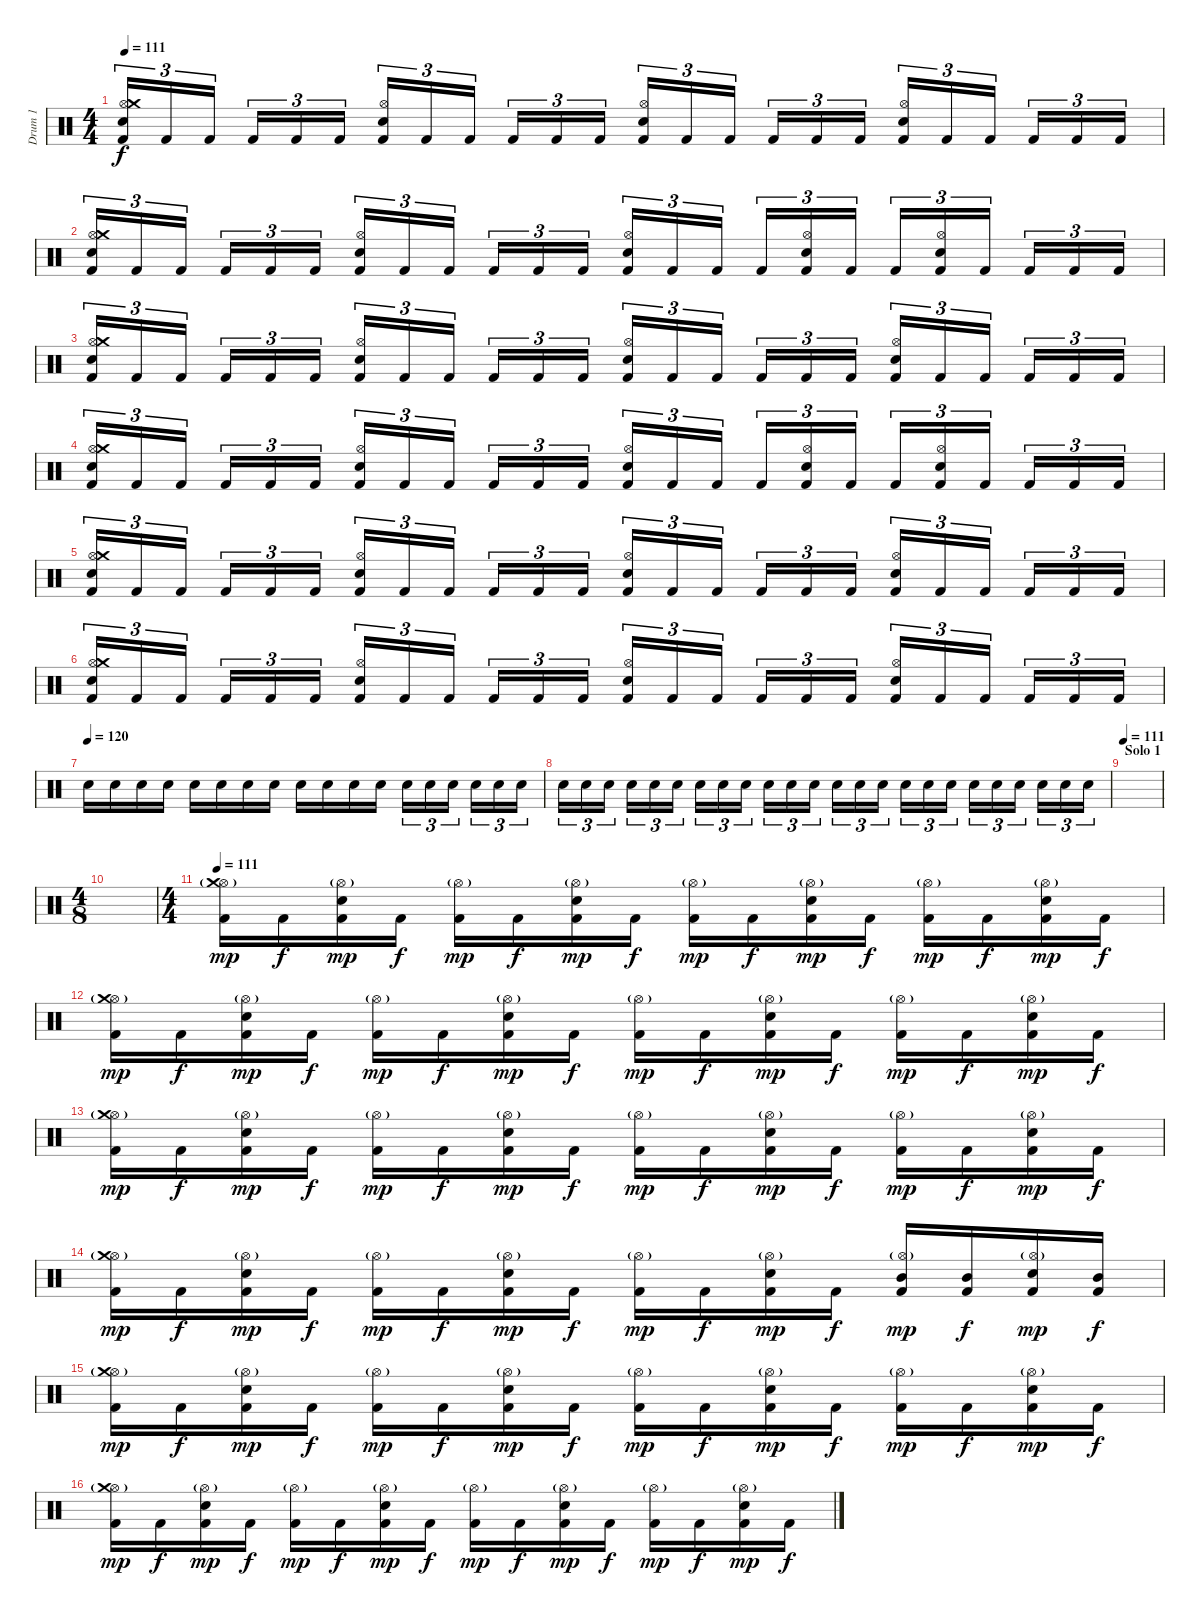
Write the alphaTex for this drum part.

\track ("Drum 1" "Drum 1") {instrument percussion}
\staff {score}
\articulation defaults
\ts (4 4)
\tempo 111
\clef neutral
\ks c
("Kick (hit) 2" "Hi-Hat (open)" "Crash medium (hit)" "Electric Snare (hit)").16{tu (3 2) dy f} "Kick (hit) 2".16{tu (3 2)} "Kick (hit) 2".16{tu (3 2)} "Kick (hit) 2".16{tu (3 2)} "Kick (hit) 2".16{tu (3 2)} "Kick (hit) 2".16{tu (3 2)} ("Kick (hit) 2" "Hi-Hat (open)" "Electric Snare (hit)").16{tu (3 2)} "Kick (hit) 2".16{tu (3 2)} "Kick (hit) 2".16{tu (3 2)} "Kick (hit) 2".16{tu (3 2)} "Kick (hit) 2".16{tu (3 2)} "Kick (hit) 2".16{tu (3 2)} ("Kick (hit) 2" "Hi-Hat (open)" "Electric Snare (hit)").16{tu (3 2)} "Kick (hit) 2".16{tu (3 2)} "Kick (hit) 2".16{tu (3 2)} "Kick (hit) 2".16{tu (3 2)} "Kick (hit) 2".16{tu (3 2)} "Kick (hit) 2".16{tu (3 2)} ("Kick (hit) 2" "Hi-Hat (open)" "Electric Snare (hit)").16{tu (3 2)} "Kick (hit) 2".16{tu (3 2)} "Kick (hit) 2".16{tu (3 2)} "Kick (hit) 2".16{tu (3 2)} "Kick (hit) 2".16{tu (3 2)} "Kick (hit) 2".16{tu (3 2)} |
("Kick (hit) 2" "Hi-Hat (open)" "Crash medium (hit)" "Electric Snare (hit)").16{tu (3 2)} "Kick (hit) 2".16{tu (3 2)} "Kick (hit) 2".16{tu (3 2)} "Kick (hit) 2".16{tu (3 2)} "Kick (hit) 2".16{tu (3 2)} "Kick (hit) 2".16{tu (3 2)} ("Kick (hit) 2" "Hi-Hat (open)" "Electric Snare (hit)").16{tu (3 2)} "Kick (hit) 2".16{tu (3 2)} "Kick (hit) 2".16{tu (3 2)} "Kick (hit) 2".16{tu (3 2)} "Kick (hit) 2".16{tu (3 2)} "Kick (hit) 2".16{tu (3 2)} ("Kick (hit) 2" "Hi-Hat (open)" "Electric Snare (hit)").16{tu (3 2)} "Kick (hit) 2".16{tu (3 2)} "Kick (hit) 2".16{tu (3 2)} "Kick (hit) 2".16{tu (3 2)} ("Kick (hit) 2" "Electric Snare (hit)" "Hi-Hat (open)").16{tu (3 2)} "Kick (hit) 2".16{tu (3 2)} "Kick (hit) 2".16{tu (3 2)} ("Kick (hit) 2" "Hi-Hat (open)" "Electric Snare (hit)").16{tu (3 2)} "Kick (hit) 2".16{tu (3 2)} "Kick (hit) 2".16{tu (3 2)} "Kick (hit) 2".16{tu (3 2)} "Kick (hit) 2".16{tu (3 2)} |
("Kick (hit) 2" "Hi-Hat (open)" "Crash medium (hit)" "Electric Snare (hit)").16{tu (3 2)} "Kick (hit) 2".16{tu (3 2)} "Kick (hit) 2".16{tu (3 2)} "Kick (hit) 2".16{tu (3 2)} "Kick (hit) 2".16{tu (3 2)} "Kick (hit) 2".16{tu (3 2)} ("Kick (hit) 2" "Hi-Hat (open)" "Electric Snare (hit)").16{tu (3 2)} "Kick (hit) 2".16{tu (3 2)} "Kick (hit) 2".16{tu (3 2)} "Kick (hit) 2".16{tu (3 2)} "Kick (hit) 2".16{tu (3 2)} "Kick (hit) 2".16{tu (3 2)} ("Kick (hit) 2" "Hi-Hat (open)" "Electric Snare (hit)").16{tu (3 2)} "Kick (hit) 2".16{tu (3 2)} "Kick (hit) 2".16{tu (3 2)} "Kick (hit) 2".16{tu (3 2)} "Kick (hit) 2".16{tu (3 2)} "Kick (hit) 2".16{tu (3 2)} ("Kick (hit) 2" "Hi-Hat (open)" "Electric Snare (hit)").16{tu (3 2)} "Kick (hit) 2".16{tu (3 2)} "Kick (hit) 2".16{tu (3 2)} "Kick (hit) 2".16{tu (3 2)} "Kick (hit) 2".16{tu (3 2)} "Kick (hit) 2".16{tu (3 2)} |
("Kick (hit) 2" "Hi-Hat (open)" "Crash medium (hit)" "Electric Snare (hit)").16{tu (3 2)} "Kick (hit) 2".16{tu (3 2)} "Kick (hit) 2".16{tu (3 2)} "Kick (hit) 2".16{tu (3 2)} "Kick (hit) 2".16{tu (3 2)} "Kick (hit) 2".16{tu (3 2)} ("Kick (hit) 2" "Hi-Hat (open)" "Electric Snare (hit)").16{tu (3 2)} "Kick (hit) 2".16{tu (3 2)} "Kick (hit) 2".16{tu (3 2)} "Kick (hit) 2".16{tu (3 2)} "Kick (hit) 2".16{tu (3 2)} "Kick (hit) 2".16{tu (3 2)} ("Kick (hit) 2" "Hi-Hat (open)" "Electric Snare (hit)").16{tu (3 2)} "Kick (hit) 2".16{tu (3 2)} "Kick (hit) 2".16{tu (3 2)} "Kick (hit) 2".16{tu (3 2)} ("Kick (hit) 2" "Electric Snare (hit)" "Hi-Hat (open)").16{tu (3 2)} "Kick (hit) 2".16{tu (3 2)} "Kick (hit) 2".16{tu (3 2)} ("Kick (hit) 2" "Hi-Hat (open)" "Electric Snare (hit)").16{tu (3 2)} "Kick (hit) 2".16{tu (3 2)} "Kick (hit) 2".16{tu (3 2)} "Kick (hit) 2".16{tu (3 2)} "Kick (hit) 2".16{tu (3 2)} |
("Kick (hit) 2" "Hi-Hat (open)" "Crash medium (hit)" "Electric Snare (hit)").16{tu (3 2)} "Kick (hit) 2".16{tu (3 2)} "Kick (hit) 2".16{tu (3 2)} "Kick (hit) 2".16{tu (3 2)} "Kick (hit) 2".16{tu (3 2)} "Kick (hit) 2".16{tu (3 2)} ("Kick (hit) 2" "Hi-Hat (open)" "Electric Snare (hit)").16{tu (3 2)} "Kick (hit) 2".16{tu (3 2)} "Kick (hit) 2".16{tu (3 2)} "Kick (hit) 2".16{tu (3 2)} "Kick (hit) 2".16{tu (3 2)} "Kick (hit) 2".16{tu (3 2)} ("Kick (hit) 2" "Hi-Hat (open)" "Electric Snare (hit)").16{tu (3 2)} "Kick (hit) 2".16{tu (3 2)} "Kick (hit) 2".16{tu (3 2)} "Kick (hit) 2".16{tu (3 2)} "Kick (hit) 2".16{tu (3 2)} "Kick (hit) 2".16{tu (3 2)} ("Kick (hit) 2" "Hi-Hat (open)" "Electric Snare (hit)").16{tu (3 2)} "Kick (hit) 2".16{tu (3 2)} "Kick (hit) 2".16{tu (3 2)} "Kick (hit) 2".16{tu (3 2)} "Kick (hit) 2".16{tu (3 2)} "Kick (hit) 2".16{tu (3 2)} |
("Kick (hit) 2" "Hi-Hat (open)" "Crash medium (hit)" "Electric Snare (hit)").16{tu (3 2)} "Kick (hit) 2".16{tu (3 2)} "Kick (hit) 2".16{tu (3 2)} "Kick (hit) 2".16{tu (3 2)} "Kick (hit) 2".16{tu (3 2)} "Kick (hit) 2".16{tu (3 2)} ("Kick (hit) 2" "Hi-Hat (open)" "Electric Snare (hit)").16{tu (3 2)} "Kick (hit) 2".16{tu (3 2)} "Kick (hit) 2".16{tu (3 2)} "Kick (hit) 2".16{tu (3 2)} "Kick (hit) 2".16{tu (3 2)} "Kick (hit) 2".16{tu (3 2)} ("Kick (hit) 2" "Hi-Hat (open)" "Electric Snare (hit)").16{tu (3 2)} "Kick (hit) 2".16{tu (3 2)} "Kick (hit) 2".16{tu (3 2)} "Kick (hit) 2".16{tu (3 2)} "Kick (hit) 2".16{tu (3 2)} "Kick (hit) 2".16{tu (3 2)} ("Kick (hit) 2" "Hi-Hat (open)" "Electric Snare (hit)").16{tu (3 2)} "Kick (hit) 2".16{tu (3 2)} "Kick (hit) 2".16{tu (3 2)} "Kick (hit) 2".16{tu (3 2)} "Kick (hit) 2".16{tu (3 2)} "Kick (hit) 2".16{tu (3 2)} |
\tempo 125
\tempo (120)
"Electric Snare (hit)".16 "Electric Snare (hit)".16 "Electric Snare (hit)".16 "Electric Snare (hit)".16 "Electric Snare (hit)".16 "Electric Snare (hit)".16 "Electric Snare (hit)".16 "Electric Snare (hit)".16 "Electric Snare (hit)".16 "Electric Snare (hit)".16 "Electric Snare (hit)".16 "Electric Snare (hit)".16 "Electric Snare (hit)".16{tu (3 2)} "Electric Snare (hit)".16{tu (3 2)} "Electric Snare (hit)".16{tu (3 2)} "Electric Snare (hit)".16{tu (3 2)} "Electric Snare (hit)".16{tu (3 2)} "Electric Snare (hit)".16{tu (3 2)} |
"Electric Snare (hit)".16{tu (3 2)} "Electric Snare (hit)".16{tu (3 2)} "Electric Snare (hit)".16{tu (3 2)} "Electric Snare (hit)".16{tu (3 2)} "Electric Snare (hit)".16{tu (3 2)} "Electric Snare (hit)".16{tu (3 2)} "Electric Snare (hit)".16{tu (3 2)} "Electric Snare (hit)".16{tu (3 2)} "Electric Snare (hit)".16{tu (3 2)} "Electric Snare (hit)".16{tu (3 2)} "Electric Snare (hit)".16{tu (3 2)} "Electric Snare (hit)".16{tu (3 2)} "Electric Snare (hit)".16{tu (3 2)} "Electric Snare (hit)".16{tu (3 2)} "Electric Snare (hit)".16{tu (3 2)} "Electric Snare (hit)".16{tu (3 2)} "Electric Snare (hit)".16{tu (3 2)} "Electric Snare (hit)".16{tu (3 2)} "Electric Snare (hit)".16{tu (3 2)} "Electric Snare (hit)".16{tu (3 2)} "Electric Snare (hit)".16{tu (3 2)} "Electric Snare (hit)".16{tu (3 2)} "Electric Snare (hit)".16{tu (3 2)} "Electric Snare (hit)".16{tu (3 2)} |
\section ("" "Solo 1")
\tempo 111
|
\ts (4 8)
|
\ts (4 4)
\tempo 111
("Kick (hit) 2" "Hi-Hat (open)"{g} "Crash medium (hit)").16{dy mp} "Kick (hit) 2".16{dy f} ("Kick (hit) 2" "Hi-Hat (open)"{g} "Electric Snare (hit)").16{dy mp} "Kick (hit) 2".16{dy f} ("Kick (hit) 2" "Hi-Hat (open)"{g}).16{dy mp} "Kick (hit) 2".16{dy f} ("Kick (hit) 2" "Hi-Hat (open)"{g} "Electric Snare (hit)").16{dy mp} "Kick (hit) 2".16{dy f} ("Kick (hit) 2" "Hi-Hat (open)"{g}).16{dy mp} "Kick (hit) 2".16{dy f} ("Kick (hit) 2" "Hi-Hat (open)"{g} "Electric Snare (hit)").16{dy mp} "Kick (hit) 2".16{dy f} ("Kick (hit) 2" "Hi-Hat (open)"{g}).16{dy mp} "Kick (hit) 2".16{dy f} ("Kick (hit) 2" "Hi-Hat (open)"{g} "Electric Snare (hit)").16{dy mp} "Kick (hit) 2".16{dy f} |
("Kick (hit) 2" "Hi-Hat (open)"{g} "Crash medium (hit)").16{dy mp} "Kick (hit) 2".16{dy f} ("Kick (hit) 2" "Hi-Hat (open)"{g} "Electric Snare (hit)").16{dy mp} "Kick (hit) 2".16{dy f} ("Kick (hit) 2" "Hi-Hat (open)"{g}).16{dy mp} "Kick (hit) 2".16{dy f} ("Kick (hit) 2" "Hi-Hat (open)"{g} "Electric Snare (hit)").16{dy mp} "Kick (hit) 2".16{dy f} ("Kick (hit) 2" "Hi-Hat (open)"{g}).16{dy mp} "Kick (hit) 2".16{dy f} ("Kick (hit) 2" "Hi-Hat (open)"{g} "Electric Snare (hit)").16{dy mp} "Kick (hit) 2".16{dy f} ("Kick (hit) 2" "Hi-Hat (open)"{g}).16{dy mp} "Kick (hit) 2".16{dy f} ("Kick (hit) 2" "Hi-Hat (open)"{g} "Electric Snare (hit)").16{dy mp} "Kick (hit) 2".16{dy f} |
("Kick (hit) 2" "Hi-Hat (open)"{g} "Crash medium (hit)").16{dy mp} "Kick (hit) 2".16{dy f} ("Kick (hit) 2" "Hi-Hat (open)"{g} "Electric Snare (hit)").16{dy mp} "Kick (hit) 2".16{dy f} ("Kick (hit) 2" "Hi-Hat (open)"{g}).16{dy mp} "Kick (hit) 2".16{dy f} ("Kick (hit) 2" "Hi-Hat (open)"{g} "Electric Snare (hit)").16{dy mp} "Kick (hit) 2".16{dy f} ("Kick (hit) 2" "Hi-Hat (open)"{g}).16{dy mp} "Kick (hit) 2".16{dy f} ("Kick (hit) 2" "Hi-Hat (open)"{g} "Electric Snare (hit)").16{dy mp} "Kick (hit) 2".16{dy f} ("Kick (hit) 2" "Hi-Hat (open)"{g}).16{dy mp} "Kick (hit) 2".16{dy f} ("Kick (hit) 2" "Hi-Hat (open)"{g} "Electric Snare (hit)").16{dy mp} "Kick (hit) 2".16{dy f} |
("Kick (hit) 2" "Hi-Hat (open)"{g} "Crash medium (hit)").16{dy mp} "Kick (hit) 2".16{dy f} ("Kick (hit) 2" "Hi-Hat (open)"{g} "Electric Snare (hit)").16{dy mp} "Kick (hit) 2".16{dy f} ("Kick (hit) 2" "Hi-Hat (open)"{g}).16{dy mp} "Kick (hit) 2".16{dy f} ("Kick (hit) 2" "Hi-Hat (open)"{g} "Electric Snare (hit)").16{dy mp} "Kick (hit) 2".16{dy f} ("Kick (hit) 2" "Hi-Hat (open)"{g}).16{dy mp} "Kick (hit) 2".16{dy f} ("Kick (hit) 2" "Hi-Hat (open)"{g} "Electric Snare (hit)").16{dy mp} "Kick (hit) 2".16{dy f} ("Kick (hit) 2" "Hi-Hat (open)"{g} "Mid Tom (hit)").16{dy mp} ("Kick (hit) 2" "Mid Tom (hit)").16{dy f} ("Kick (hit) 2" "Hi-Hat (open)"{g} "Electric Snare (hit)").16{dy mp} ("Kick (hit) 2" "Mid Tom (hit)").16{dy f} |
("Kick (hit) 2" "Hi-Hat (open)"{g} "Crash medium (hit)").16{dy mp} "Kick (hit) 2".16{dy f} ("Kick (hit) 2" "Hi-Hat (open)"{g} "Electric Snare (hit)").16{dy mp} "Kick (hit) 2".16{dy f} ("Kick (hit) 2" "Hi-Hat (open)"{g}).16{dy mp} "Kick (hit) 2".16{dy f} ("Kick (hit) 2" "Hi-Hat (open)"{g} "Electric Snare (hit)").16{dy mp} "Kick (hit) 2".16{dy f} ("Kick (hit) 2" "Hi-Hat (open)"{g}).16{dy mp} "Kick (hit) 2".16{dy f} ("Kick (hit) 2" "Hi-Hat (open)"{g} "Electric Snare (hit)").16{dy mp} "Kick (hit) 2".16{dy f} ("Kick (hit) 2" "Hi-Hat (open)"{g}).16{dy mp} "Kick (hit) 2".16{dy f} ("Kick (hit) 2" "Hi-Hat (open)"{g} "Electric Snare (hit)").16{dy mp} "Kick (hit) 2".16{dy f} |
("Kick (hit) 2" "Hi-Hat (open)"{g} "Crash medium (hit)").16{dy mp} "Kick (hit) 2".16{dy f} ("Kick (hit) 2" "Hi-Hat (open)"{g} "Electric Snare (hit)").16{dy mp} "Kick (hit) 2".16{dy f} ("Kick (hit) 2" "Hi-Hat (open)"{g}).16{dy mp} "Kick (hit) 2".16{dy f} ("Kick (hit) 2" "Hi-Hat (open)"{g} "Electric Snare (hit)").16{dy mp} "Kick (hit) 2".16{dy f} ("Kick (hit) 2" "Hi-Hat (open)"{g}).16{dy mp} "Kick (hit) 2".16{dy f} ("Kick (hit) 2" "Hi-Hat (open)"{g} "Electric Snare (hit)").16{dy mp} "Kick (hit) 2".16{dy f} ("Kick (hit) 2" "Hi-Hat (open)"{g}).16{dy mp} "Kick (hit) 2".16{dy f} ("Kick (hit) 2" "Hi-Hat (open)"{g} "Electric Snare (hit)").16{dy mp} "Kick (hit) 2".16{dy f}
